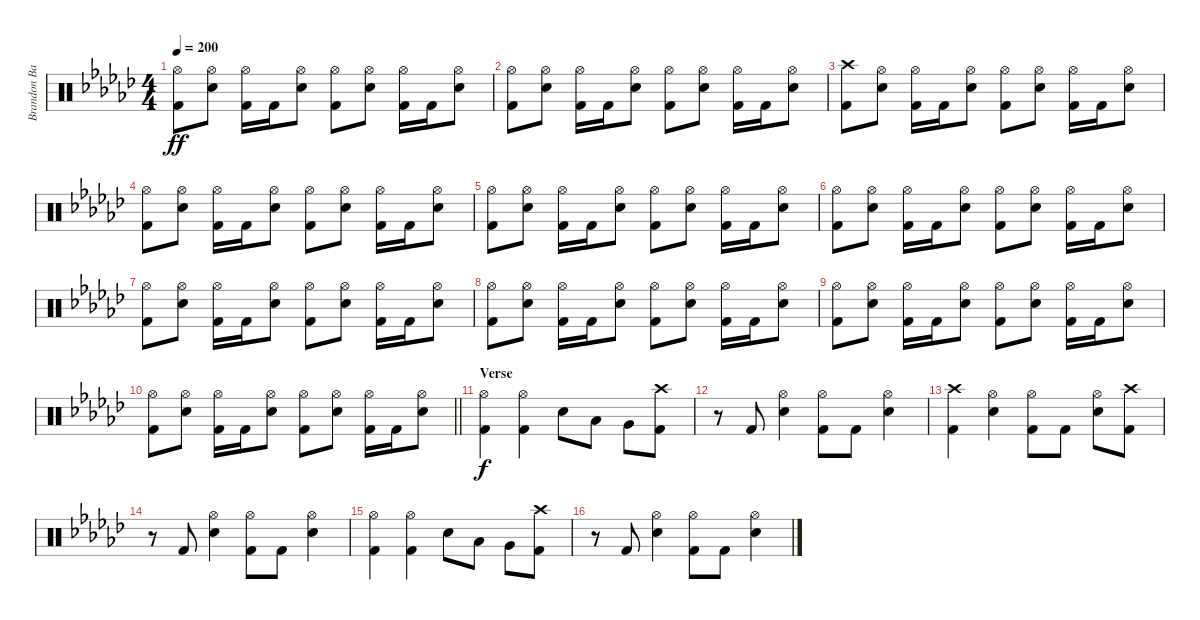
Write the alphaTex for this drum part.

\track ("Brandon Barnes - Drums" "Brandon Ba") {instrument percussion}
\staff {score}
\articulation defaults
\ts (4 4)
\tempo 200
\clef neutral
\ks ebminor
("Kick (hit) 2" "Hi-Hat (open)").8{dy ff} ("Snare (hit) 2" "Hi-Hat (open)").8 ("Kick (hit) 2" "Hi-Hat (open)").16 "Kick (hit) 2".16 ("Snare (hit) 2" "Hi-Hat (open)").8 ("Kick (hit) 2" "Hi-Hat (open)").8 ("Snare (hit) 2" "Hi-Hat (open)").8 ("Kick (hit) 2" "Hi-Hat (open)").16 "Kick (hit) 2".16 ("Snare (hit) 2" "Hi-Hat (open)").8 |
("Kick (hit) 2" "Hi-Hat (open)").8 ("Snare (hit) 2" "Hi-Hat (open)").8 ("Kick (hit) 2" "Hi-Hat (open)").16 "Kick (hit) 2".16 ("Snare (hit) 2" "Hi-Hat (open)").8 ("Kick (hit) 2" "Hi-Hat (open)").8 ("Snare (hit) 2" "Hi-Hat (open)").8 ("Kick (hit) 2" "Hi-Hat (open)").16 "Kick (hit) 2".16 ("Snare (hit) 2" "Hi-Hat (open)").8 |
("Kick (hit) 2" "Crash high (hit)").8 ("Snare (hit) 2" "Hi-Hat (open)").8 ("Kick (hit) 2" "Hi-Hat (open)").16 "Kick (hit) 2".16 ("Snare (hit) 2" "Hi-Hat (open)").8 ("Kick (hit) 2" "Hi-Hat (open)").8 ("Snare (hit) 2" "Hi-Hat (open)").8 ("Kick (hit) 2" "Hi-Hat (open)").16 "Kick (hit) 2".16 ("Snare (hit) 2" "Hi-Hat (open)").8 |
("Kick (hit) 2" "Hi-Hat (open)").8 ("Snare (hit) 2" "Hi-Hat (open)").8 ("Kick (hit) 2" "Hi-Hat (open)").16 "Kick (hit) 2".16 ("Snare (hit) 2" "Hi-Hat (open)").8 ("Kick (hit) 2" "Hi-Hat (open)").8 ("Snare (hit) 2" "Hi-Hat (open)").8 ("Kick (hit) 2" "Hi-Hat (open)").16 "Kick (hit) 2".16 ("Snare (hit) 2" "Hi-Hat (open)").8 |
("Kick (hit) 2" "Hi-Hat (open)").8 ("Snare (hit) 2" "Hi-Hat (open)").8 ("Kick (hit) 2" "Hi-Hat (open)").16 "Kick (hit) 2".16 ("Snare (hit) 2" "Hi-Hat (open)").8 ("Kick (hit) 2" "Hi-Hat (open)").8 ("Snare (hit) 2" "Hi-Hat (open)").8 ("Kick (hit) 2" "Hi-Hat (open)").16 "Kick (hit) 2".16 ("Snare (hit) 2" "Hi-Hat (open)").8 |
("Kick (hit) 2" "Hi-Hat (open)").8 ("Snare (hit) 2" "Hi-Hat (open)").8 ("Kick (hit) 2" "Hi-Hat (open)").16 "Kick (hit) 2".16 ("Snare (hit) 2" "Hi-Hat (open)").8 ("Kick (hit) 2" "Hi-Hat (open)").8 ("Snare (hit) 2" "Hi-Hat (open)").8 ("Kick (hit) 2" "Hi-Hat (open)").16 "Kick (hit) 2".16 ("Snare (hit) 2" "Hi-Hat (open)").8 |
("Kick (hit) 2" "Hi-Hat (open)").8 ("Snare (hit) 2" "Hi-Hat (open)").8 ("Kick (hit) 2" "Hi-Hat (open)").16 "Kick (hit) 2".16 ("Snare (hit) 2" "Hi-Hat (open)").8 ("Kick (hit) 2" "Hi-Hat (open)").8 ("Snare (hit) 2" "Hi-Hat (open)").8 ("Kick (hit) 2" "Hi-Hat (open)").16 "Kick (hit) 2".16 ("Snare (hit) 2" "Hi-Hat (open)").8 |
("Kick (hit) 2" "Hi-Hat (open)").8 ("Snare (hit) 2" "Hi-Hat (open)").8 ("Kick (hit) 2" "Hi-Hat (open)").16 "Kick (hit) 2".16 ("Snare (hit) 2" "Hi-Hat (open)").8 ("Kick (hit) 2" "Hi-Hat (open)").8 ("Snare (hit) 2" "Hi-Hat (open)").8 ("Kick (hit) 2" "Hi-Hat (open)").16 "Kick (hit) 2".16 ("Snare (hit) 2" "Hi-Hat (open)").8 |
("Kick (hit) 2" "Hi-Hat (open)").8 ("Snare (hit) 2" "Hi-Hat (open)").8 ("Kick (hit) 2" "Hi-Hat (open)").16 "Kick (hit) 2".16 ("Snare (hit) 2" "Hi-Hat (open)").8 ("Kick (hit) 2" "Hi-Hat (open)").8 ("Snare (hit) 2" "Hi-Hat (open)").8 ("Kick (hit) 2" "Hi-Hat (open)").16 "Kick (hit) 2".16 ("Snare (hit) 2" "Hi-Hat (open)").8 |
\barLineRight lightlight
("Kick (hit) 2" "Hi-Hat (open)").8 ("Snare (hit) 2" "Hi-Hat (open)").8 ("Kick (hit) 2" "Hi-Hat (open)").16 "Kick (hit) 2".16 ("Snare (hit) 2" "Hi-Hat (open)").8 ("Kick (hit) 2" "Hi-Hat (open)").8 ("Snare (hit) 2" "Hi-Hat (open)").8 ("Kick (hit) 2" "Hi-Hat (open)").16 "Kick (hit) 2".16 ("Snare (hit) 2" "Hi-Hat (open)").8 |
\section ("" "Verse")
("Hi-Hat (open)" "Kick (hit) 2").4{dy f} ("Hi-Hat (open)" "Kick (hit) 2").4 "Electric Snare (hit)".8 "Low Tom (hit)".8 "Very Low Tom (hit)".8 ("Crash high (hit)" "Kick (hit) 2").8 |
r.8 "Kick (hit) 2".8 ("Hi-Hat (open)" "Electric Snare (hit)").4 ("Hi-Hat (open)" "Kick (hit) 2").8 "Kick (hit) 2".8 ("Hi-Hat (open)" "Electric Snare (hit)").4 |
("Crash high (hit)" "Kick (hit) 2").4 ("Hi-Hat (open)" "Electric Snare (hit)").4 ("Hi-Hat (open)" "Kick (hit) 2").8 "Kick (hit) 2".8 ("Hi-Hat (open)" "Electric Snare (hit)").8 ("Crash high (hit)" "Kick (hit) 2").8 |
r.8 "Kick (hit) 2".8 ("Hi-Hat (open)" "Electric Snare (hit)").4 ("Hi-Hat (open)" "Kick (hit) 2").8 "Kick (hit) 2".8 ("Hi-Hat (open)" "Electric Snare (hit)").4 |
("Hi-Hat (open)" "Kick (hit) 2").4 ("Hi-Hat (open)" "Kick (hit) 2").4 "Electric Snare (hit)".8 "Low Tom (hit)".8 "Very Low Tom (hit)".8 ("Crash high (hit)" "Kick (hit) 2").8 |
r.8 "Kick (hit) 2".8 ("Hi-Hat (open)" "Electric Snare (hit)").4 ("Hi-Hat (open)" "Kick (hit) 2").8 "Kick (hit) 2".8 ("Hi-Hat (open)" "Electric Snare (hit)").4
